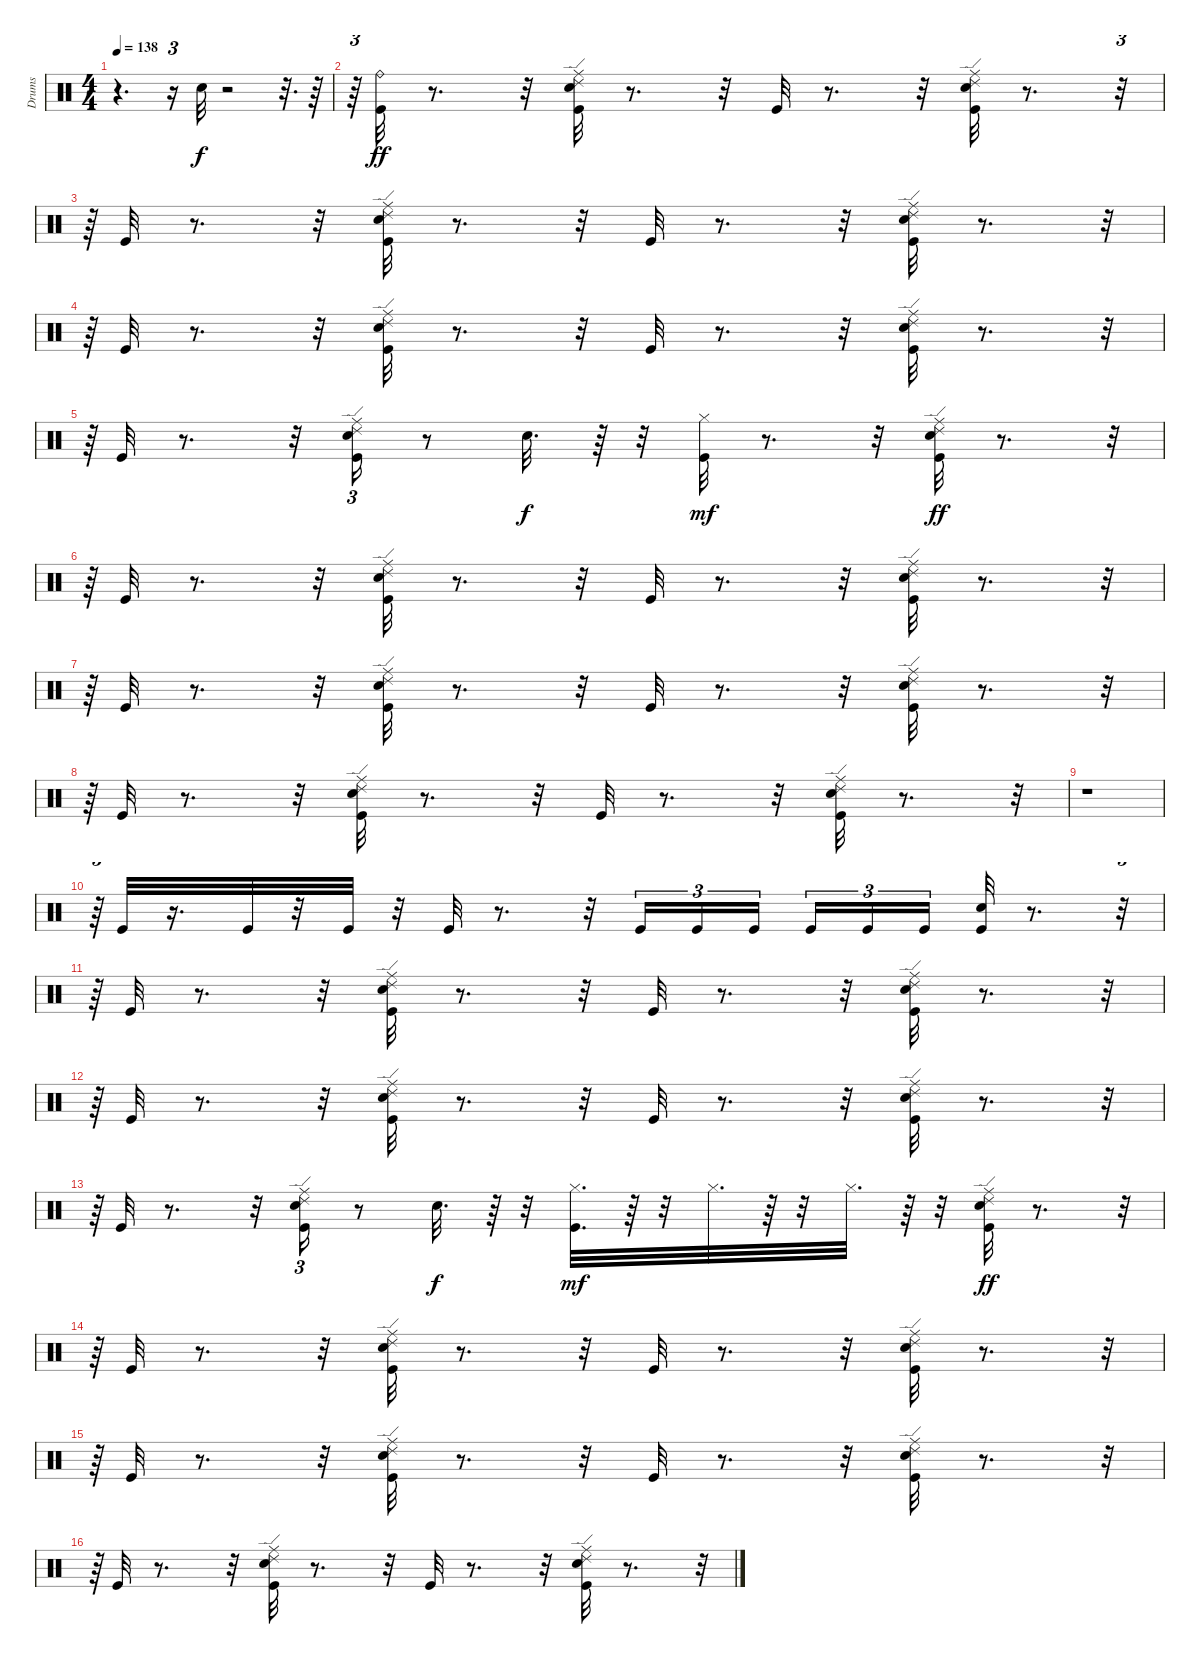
\track ("Drums" "Drums") {instrument percussion}
\staff {score}
\articulation defaults
\ts (4 4)
\tempo 138
\clef neutral
\ks c
r.4{d dy ff} r.16{tu (3 2)} "Hand Clap (hit)".32{dy f} r.2 r.32{d} r.64 |
r.64{tu (3 2)} ("Ride (bell)" "Kick (hit)").32{dy ff} r.8{d} r.32 ("Hand Clap (hit)" "Kick (hit)" "Ride (middle)" "Ride (edge) 2").32 r.8{d} r.32 "Kick (hit)".32 r.8{d} r.32 ("Ride (middle)" "Ride (edge) 2" "Hand Clap (hit)" "Kick (hit)").32 r.8{d} r.32{tu (3 2)} |
r.64{tu (3 2)} "Kick (hit)".32 r.8{d} r.32 ("Ride (middle)" "Ride (edge) 2" "Kick (hit)" "Hand Clap (hit)").32 r.8{d} r.32 "Kick (hit)".32 r.8{d} r.32 ("Ride (middle)" "Ride (edge) 2" "Kick (hit)" "Hand Clap (hit)").32 r.8{d} r.32{tu (3 2)} |
r.64{tu (3 2)} "Kick (hit)".32 r.8{d} r.32 ("Kick (hit)" "Hand Clap (hit)" "Ride (middle)" "Ride (edge) 2").32 r.8{d} r.32 "Kick (hit)".32 r.8{d} r.32 ("Ride (middle)" "Ride (edge) 2" "Hand Clap (hit)" "Kick (hit)").32 r.8{d} r.32{tu (3 2)} |
r.64{tu (3 2)} "Kick (hit)".32 r.8{d} r.32 ("Ride (middle)" "Ride (edge) 2" "Kick (hit)" "Hand Clap (hit)").16{tu (3 2)} r.8 "Hand Clap (hit)".32{d dy f} r.64 r.32 ("Kick (hit)" "Hi-Hat (closed)").32{dy mf} r.8{d} r.32 ("Ride (middle)" "Ride (edge) 2" "Hand Clap (hit)" "Kick (hit)").32{dy ff} r.8{d} r.32{tu (3 2)} |
r.64{tu (3 2)} "Kick (hit)".32 r.8{d} r.32 ("Hand Clap (hit)" "Kick (hit)" "Ride (middle)" "Ride (edge) 2").32 r.8{d} r.32 "Kick (hit)".32 r.8{d} r.32 ("Ride (middle)" "Ride (edge) 2" "Hand Clap (hit)" "Kick (hit)").32 r.8{d} r.32{tu (3 2)} |
r.64{tu (3 2)} "Kick (hit)".32 r.8{d} r.32 ("Ride (middle)" "Ride (edge) 2" "Kick (hit)" "Hand Clap (hit)").32 r.8{d} r.32 "Kick (hit)".32 r.8{d} r.32 ("Ride (middle)" "Ride (edge) 2" "Kick (hit)" "Hand Clap (hit)").32 r.8{d} r.32{tu (3 2)} |
r.64{tu (3 2)} "Kick (hit)".32 r.8{d} r.32 ("Kick (hit)" "Hand Clap (hit)" "Ride (middle)" "Ride (edge) 2").32 r.8{d} r.32 "Kick (hit)".32 r.8{d} r.32 ("Ride (middle)" "Ride (edge) 2" "Hand Clap (hit)" "Kick (hit)").32 r.8{d} r.32{tu (3 2)} |
r.1 |
r.64{tu (3 2)} "Kick (hit)".32 r.16{d} "Kick (hit)".32 r.32 "Kick (hit)".32 r.32 "Kick (hit)".32 r.8{d} r.32 "Kick (hit)".16{tu (3 2)} "Kick (hit)".16{tu (3 2)} "Kick (hit)".16{tu (3 2) beam splitsecondary} "Kick (hit)".16{tu (3 2)} "Kick (hit)".16{tu (3 2)} "Kick (hit)".16{tu (3 2)} ("Hand Clap (hit)" "Kick (hit)").32 r.8{d} r.32{tu (3 2)} |
r.64{tu (3 2)} "Kick (hit)".32 r.8{d} r.32 ("Ride (middle)" "Ride (edge) 2" "Kick (hit)" "Hand Clap (hit)").32 r.8{d} r.32 "Kick (hit)".32 r.8{d} r.32 ("Ride (middle)" "Ride (edge) 2" "Kick (hit)" "Hand Clap (hit)").32 r.8{d} r.32{tu (3 2)} |
r.64{tu (3 2)} "Kick (hit)".32 r.8{d} r.32 ("Kick (hit)" "Hand Clap (hit)" "Ride (middle)" "Ride (edge) 2").32 r.8{d} r.32 "Kick (hit)".32 r.8{d} r.32 ("Ride (middle)" "Ride (edge) 2" "Hand Clap (hit)" "Kick (hit)").32 r.8{d} r.32{tu (3 2)} |
r.64{tu (3 2)} "Kick (hit)".32 r.8{d} r.32 ("Ride (middle)" "Ride (edge) 2" "Kick (hit)" "Hand Clap (hit)").16{tu (3 2)} r.8 "Hand Clap (hit)".32{d dy f} r.64 r.32 ("Kick (hit)" "Hi-Hat (closed)").32{d dy mf} r.64 r.32 "Hi-Hat (closed)".32{d} r.64 r.32 "Hi-Hat (closed)".32{d} r.64 r.32 ("Ride (middle)" "Ride (edge) 2" "Hand Clap (hit)" "Kick (hit)").32{dy ff} r.8{d} r.32{tu (3 2)} |
r.64{tu (3 2)} "Kick (hit)".32 r.8{d} r.32 ("Hand Clap (hit)" "Kick (hit)" "Ride (middle)" "Ride (edge) 2").32 r.8{d} r.32 "Kick (hit)".32 r.8{d} r.32 ("Ride (middle)" "Ride (edge) 2" "Hand Clap (hit)" "Kick (hit)").32 r.8{d} r.32{tu (3 2)} |
r.64{tu (3 2)} "Kick (hit)".32 r.8{d} r.32 ("Ride (middle)" "Ride (edge) 2" "Kick (hit)" "Hand Clap (hit)").32 r.8{d} r.32 "Kick (hit)".32 r.8{d} r.32 ("Ride (middle)" "Ride (edge) 2" "Kick (hit)" "Hand Clap (hit)").32 r.8{d} r.32{tu (3 2)} |
r.64{tu (3 2)} "Kick (hit)".32 r.8{d} r.32 ("Kick (hit)" "Hand Clap (hit)" "Ride (middle)" "Ride (edge) 2").32 r.8{d} r.32 "Kick (hit)".32 r.8{d} r.32 ("Ride (middle)" "Ride (edge) 2" "Hand Clap (hit)" "Kick (hit)").32 r.8{d} r.32{tu (3 2)}
